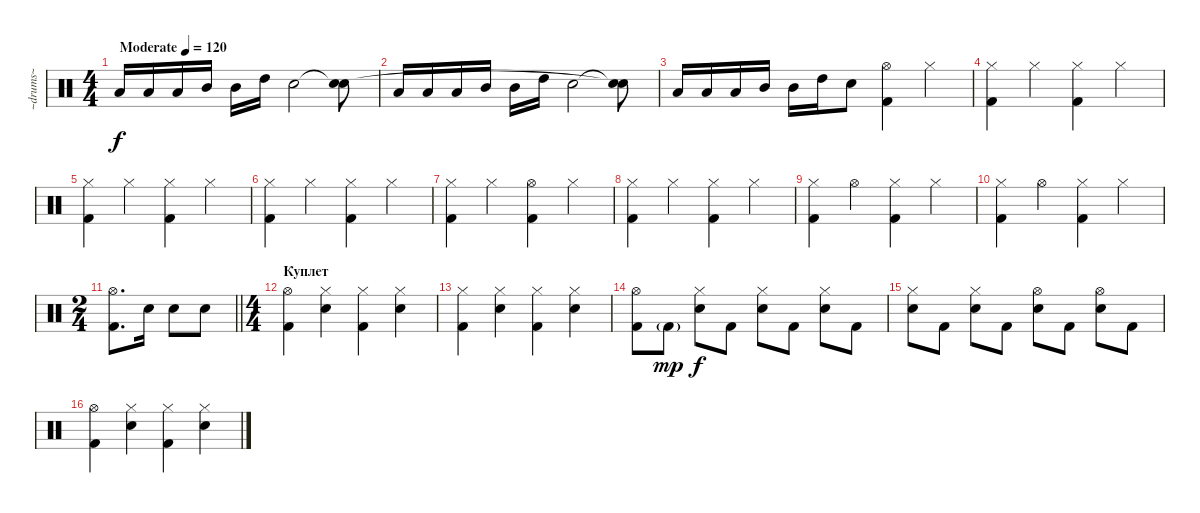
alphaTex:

\track ("~drums~" "~drums~") {instrument percussion}
\staff {score}
\articulation defaults
\ts (4 4)
\tempo (120 "Moderate")
\clef neutral
\ks c "Low Tom (hit)".16{dy f} "Low Tom (hit)".16 "Low Tom (hit)".16 "Mid Tom (hit)".16 "Mid Tom (hit)".16 "High Tom (hit)".16 "Snare (hit) 2".2
("Snare (hit)"{t} "Snare (hit)").8 |
"Low Tom (hit)".16 "Low Tom (hit)".16 "Low Tom (hit)".16 "Mid Tom (hit)".16 "Mid Tom (hit)".16 "High Tom (hit)".16 "Snare (hit) 2".2 ("Snare (hit)"{t} "Snare (hit)"{t}).8 |
"Low Tom (hit)".16 "Low Tom (hit)".16 "Low Tom (hit)".16 "Mid Tom (hit)".16 "Mid Tom (hit)".16 "High Tom (hit)".16 "Snare (hit) 2".8 ("Hi-Hat (open)" "Kick (hit) 2").4 "Hi-Hat (closed)".4 |
("Hi-Hat (closed)" "Kick (hit) 2").4 "Hi-Hat (closed)".4 ("Hi-Hat (closed)" "Kick (hit) 2").4 "Hi-Hat (closed)".4 |
("Hi-Hat (closed)" "Kick (hit) 2").4 "Hi-Hat (closed)".4 ("Hi-Hat (closed)" "Kick (hit) 2").4 "Hi-Hat (closed)".4 |
("Hi-Hat (closed)" "Kick (hit) 2").4 "Hi-Hat (closed)".4 ("Hi-Hat (closed)" "Kick (hit) 2").4 "Hi-Hat (closed)".4 |
("Hi-Hat (closed)" "Kick (hit) 2").4 "Hi-Hat (closed)".4 ("Hi-Hat (open)" "Kick (hit) 2").4 "Hi-Hat (closed)".4 |
("Hi-Hat (closed)" "Kick (hit) 2").4 "Hi-Hat (closed)".4 ("Hi-Hat (closed)" "Kick (hit) 2").4 "Hi-Hat (closed)".4 |
("Hi-Hat (closed)" "Kick (hit) 2").4 "Hi-Hat (open)".4 ("Hi-Hat (closed)" "Kick (hit) 2").4 "Hi-Hat (closed)".4 |
("Hi-Hat (closed)" "Kick (hit) 2").4 "Hi-Hat (open)".4 ("Hi-Hat (closed)" "Kick (hit) 2").4 "Hi-Hat (closed)".4 |
\ts (2 4)
\barLineRight lightlight
("Hi-Hat (open)" "Kick (hit) 2").8{d} "Snare (hit) 2".16 "Snare (hit) 2".8 "Snare (hit) 2".8 |
\ts (4 4)
\section ("" "Куплет")
("Hi-Hat (open)" "Kick (hit) 2").4 ("Hi-Hat (closed)" "Snare (hit) 2").4 ("Hi-Hat (closed)" "Kick (hit) 2").4 ("Hi-Hat (closed)" "Snare (hit) 2").4 |
("Hi-Hat (closed)" "Kick (hit) 2").4 ("Hi-Hat (closed)" "Snare (hit) 2").4 ("Hi-Hat (closed)" "Kick (hit) 2").4 ("Hi-Hat (closed)" "Snare (hit) 2").4 |
("Hi-Hat (open)" "Kick (hit) 2").8 "Kick (hit) 2"{g}.8{dy mp} ("Hi-Hat (closed)" "Snare (hit) 2").8{dy f} "Kick (hit) 2".8 ("Hi-Hat (closed)" "Snare (hit) 2").8 "Kick (hit) 2".8 ("Hi-Hat (closed)" "Snare (hit) 2").8 "Kick (hit) 2".8 |
("Hi-Hat (closed)" "Snare (hit) 2").8 "Kick (hit) 2".8 ("Hi-Hat (closed)" "Snare (hit) 2").8 "Kick (hit) 2".8 ("Hi-Hat (open)" "Snare (hit) 2").8 "Kick (hit) 2".8 ("Hi-Hat (open)" "Snare (hit) 2").8 "Kick (hit) 2".8 |
("Hi-Hat (open)" "Kick (hit) 2").4 ("Hi-Hat (closed)" "Snare (hit) 2").4 ("Hi-Hat (closed)" "Kick (hit) 2").4 ("Hi-Hat (closed)" "Snare (hit) 2").4
